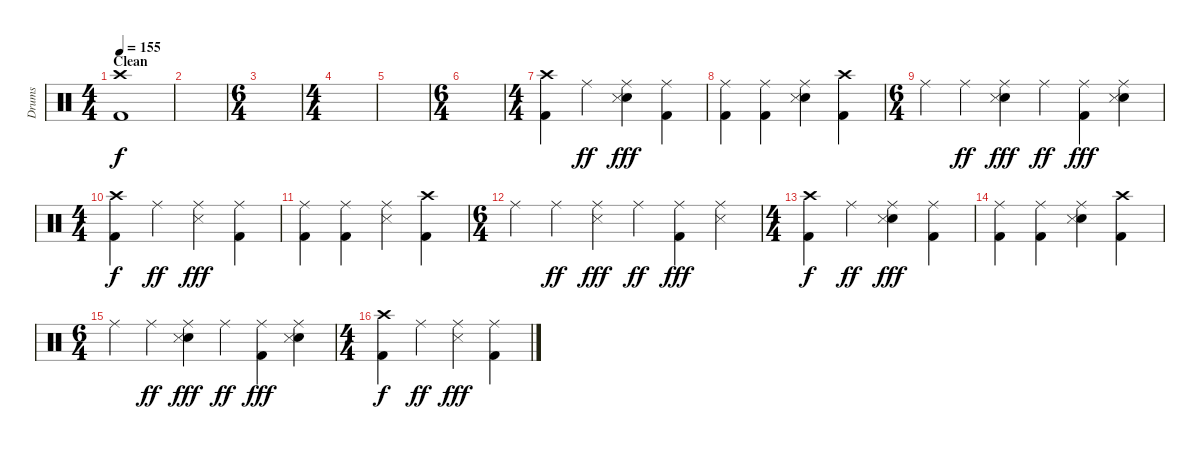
\track ("Drums" "Drums") {instrument percussion}
\staff {score}
\articulation defaults
\ts (4 4)
\section ("" "Clean")
\tempo 155
\clef neutral
\ks c
("Crash high (hit)" "Kick (hit) 2").1{dy f} |
|
\ts (6 4)
|
\ts (4 4)
|
|
\ts (6 4)
|
\ts (4 4)
("Crash high (hit)" "Kick (hit) 2").4 "Ride (middle)".4{dy ff} ("Ride (middle)" "Electric Snare (hit)" "Snare (side stick) 3").4{dy fff} ("Ride (middle)" "Kick (hit) 2").4 |
("Ride (middle)" "Kick (hit) 2").4 ("Ride (middle)" "Kick (hit) 2").4 ("Ride (middle)" "Electric Snare (hit)" "Snare (side stick) 3").4 ("Crash high (hit)" "Kick (hit) 2").4 |
\ts (6 4)
"Ride (middle)".4 "Ride (middle)".4{dy ff} ("Ride (middle)" "Electric Snare (hit)" "Snare (side stick) 3").4{dy fff} "Ride (middle)".4{dy ff} ("Ride (middle)" "Kick (hit) 2").4{dy fff} ("Ride (middle)" "Electric Snare (hit)" "Snare (side stick) 3").4 |
\ts (4 4)
("Crash high (hit)" "Kick (hit) 2").4{dy f} "Ride (middle)".4{dy ff} ("Ride (middle)" "Snare (side stick) 3").4{dy fff} ("Ride (middle)" "Kick (hit) 2").4 |
("Ride (middle)" "Kick (hit) 2").4 ("Ride (middle)" "Kick (hit) 2").4 ("Ride (middle)" "Snare (side stick) 3").4 ("Crash high (hit)" "Kick (hit) 2").4 |
\ts (6 4)
"Ride (middle)".4 "Ride (middle)".4{dy ff} ("Ride (middle)" "Snare (side stick) 3").4{dy fff} "Ride (middle)".4{dy ff} ("Ride (middle)" "Kick (hit) 2").4{dy fff} ("Ride (middle)" "Snare (side stick) 3").4 |
\ts (4 4)
("Crash high (hit)" "Kick (hit) 2").4{dy f} "Ride (middle)".4{dy ff} ("Ride (middle)" "Electric Snare (hit)" "Snare (side stick) 3").4{dy fff} ("Ride (middle)" "Kick (hit) 2").4 |
("Ride (middle)" "Kick (hit) 2").4 ("Ride (middle)" "Kick (hit) 2").4 ("Ride (middle)" "Electric Snare (hit)" "Snare (side stick) 3").4 ("Crash high (hit)" "Kick (hit) 2").4 |
\ts (6 4)
"Ride (middle)".4 "Ride (middle)".4{dy ff} ("Ride (middle)" "Electric Snare (hit)" "Snare (side stick) 3").4{dy fff} "Ride (middle)".4{dy ff} ("Ride (middle)" "Kick (hit) 2").4{dy fff} ("Ride (middle)" "Electric Snare (hit)" "Snare (side stick) 3").4 |
\ts (4 4)
("Crash high (hit)" "Kick (hit) 2").4{dy f} "Ride (middle)".4{dy ff} ("Ride (middle)" "Snare (side stick) 3").4{dy fff} ("Ride (middle)" "Kick (hit) 2").4
